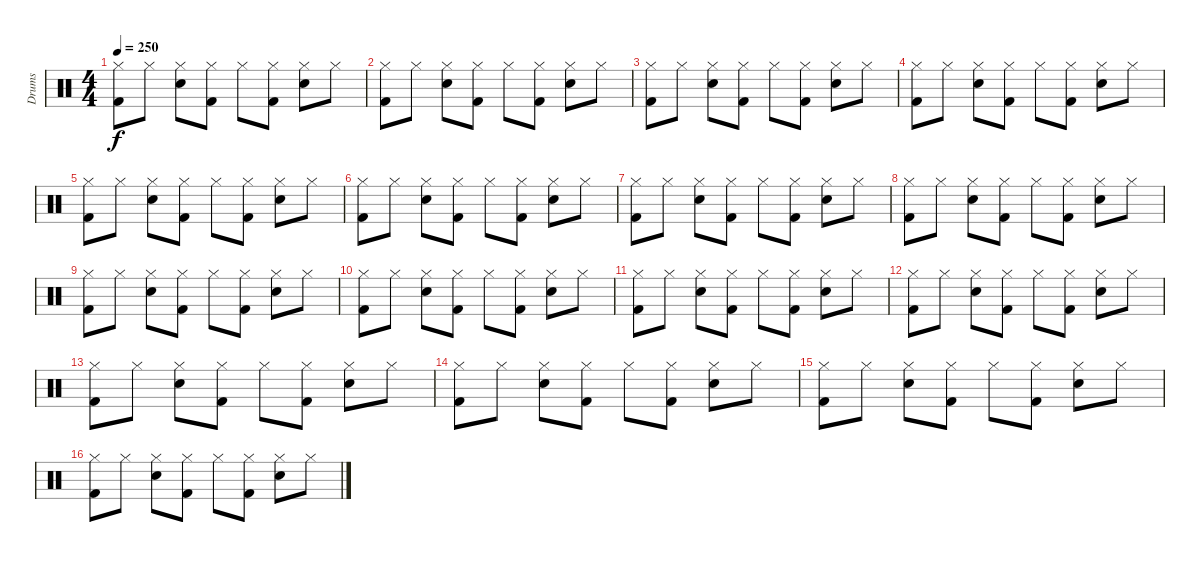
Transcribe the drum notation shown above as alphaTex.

\track ("Drums" "Drums") {instrument percussion}
\staff {score}
\articulation defaults
\ts (4 4)
\tempo 250
\clef neutral
\ks c
("Kick (hit) 2" "Hi-Hat (closed)").8{dy f} "Hi-Hat (closed)".8 ("Snare (hit) 2" "Hi-Hat (closed)").8 ("Kick (hit) 2" "Hi-Hat (closed)").8 "Hi-Hat (closed)".8 ("Kick (hit) 2" "Hi-Hat (closed)").8 ("Snare (hit) 2" "Hi-Hat (closed)").8 "Hi-Hat (closed)".8 |
("Kick (hit) 2" "Hi-Hat (closed)").8 "Hi-Hat (closed)".8 ("Snare (hit) 2" "Hi-Hat (closed)").8 ("Kick (hit) 2" "Hi-Hat (closed)").8 "Hi-Hat (closed)".8 ("Kick (hit) 2" "Hi-Hat (closed)").8 ("Snare (hit) 2" "Hi-Hat (closed)").8 "Hi-Hat (closed)".8 |
("Kick (hit) 2" "Hi-Hat (closed)").8 "Hi-Hat (closed)".8 ("Snare (hit) 2" "Hi-Hat (closed)").8 ("Kick (hit) 2" "Hi-Hat (closed)").8 "Hi-Hat (closed)".8 ("Kick (hit) 2" "Hi-Hat (closed)").8 ("Snare (hit) 2" "Hi-Hat (closed)").8 "Hi-Hat (closed)".8 |
("Kick (hit) 2" "Hi-Hat (closed)").8 "Hi-Hat (closed)".8 ("Snare (hit) 2" "Hi-Hat (closed)").8 ("Kick (hit) 2" "Hi-Hat (closed)").8 "Hi-Hat (closed)".8 ("Kick (hit) 2" "Hi-Hat (closed)").8 ("Snare (hit) 2" "Hi-Hat (closed)").8 "Hi-Hat (closed)".8 |
("Kick (hit) 2" "Hi-Hat (closed)").8 "Hi-Hat (closed)".8 ("Snare (hit) 2" "Hi-Hat (closed)").8 ("Kick (hit) 2" "Hi-Hat (closed)").8 "Hi-Hat (closed)".8 ("Kick (hit) 2" "Hi-Hat (closed)").8 ("Snare (hit) 2" "Hi-Hat (closed)").8 "Hi-Hat (closed)".8 |
("Kick (hit) 2" "Hi-Hat (closed)").8 "Hi-Hat (closed)".8 ("Snare (hit) 2" "Hi-Hat (closed)").8 ("Kick (hit) 2" "Hi-Hat (closed)").8 "Hi-Hat (closed)".8 ("Kick (hit) 2" "Hi-Hat (closed)").8 ("Snare (hit) 2" "Hi-Hat (closed)").8 "Hi-Hat (closed)".8 |
("Kick (hit) 2" "Hi-Hat (closed)").8 "Hi-Hat (closed)".8 ("Snare (hit) 2" "Hi-Hat (closed)").8 ("Kick (hit) 2" "Hi-Hat (closed)").8 "Hi-Hat (closed)".8 ("Kick (hit) 2" "Hi-Hat (closed)").8 ("Snare (hit) 2" "Hi-Hat (closed)").8 "Hi-Hat (closed)".8 |
("Kick (hit) 2" "Hi-Hat (closed)").8 "Hi-Hat (closed)".8 ("Snare (hit) 2" "Hi-Hat (closed)").8 ("Kick (hit) 2" "Hi-Hat (closed)").8 "Hi-Hat (closed)".8 ("Kick (hit) 2" "Hi-Hat (closed)").8 ("Snare (hit) 2" "Hi-Hat (closed)").8 "Hi-Hat (closed)".8 |
("Kick (hit) 2" "Hi-Hat (closed)").8 "Hi-Hat (closed)".8 ("Snare (hit) 2" "Hi-Hat (closed)").8 ("Kick (hit) 2" "Hi-Hat (closed)").8 "Hi-Hat (closed)".8 ("Kick (hit) 2" "Hi-Hat (closed)").8 ("Snare (hit) 2" "Hi-Hat (closed)").8 "Hi-Hat (closed)".8 |
("Kick (hit) 2" "Hi-Hat (closed)").8 "Hi-Hat (closed)".8 ("Snare (hit) 2" "Hi-Hat (closed)").8 ("Kick (hit) 2" "Hi-Hat (closed)").8 "Hi-Hat (closed)".8 ("Kick (hit) 2" "Hi-Hat (closed)").8 ("Snare (hit) 2" "Hi-Hat (closed)").8 "Hi-Hat (closed)".8 |
("Kick (hit) 2" "Hi-Hat (closed)").8 "Hi-Hat (closed)".8 ("Snare (hit) 2" "Hi-Hat (closed)").8 ("Kick (hit) 2" "Hi-Hat (closed)").8 "Hi-Hat (closed)".8 ("Kick (hit) 2" "Hi-Hat (closed)").8 ("Snare (hit) 2" "Hi-Hat (closed)").8 "Hi-Hat (closed)".8 |
("Kick (hit) 2" "Hi-Hat (closed)").8 "Hi-Hat (closed)".8 ("Snare (hit) 2" "Hi-Hat (closed)").8 ("Kick (hit) 2" "Hi-Hat (closed)").8 "Hi-Hat (closed)".8 ("Kick (hit) 2" "Hi-Hat (closed)").8 ("Snare (hit) 2" "Hi-Hat (closed)").8 "Hi-Hat (closed)".8 |
("Kick (hit) 2" "Hi-Hat (closed)").8 "Hi-Hat (closed)".8 ("Snare (hit) 2" "Hi-Hat (closed)").8 ("Kick (hit) 2" "Hi-Hat (closed)").8 "Hi-Hat (closed)".8 ("Kick (hit) 2" "Hi-Hat (closed)").8 ("Snare (hit) 2" "Hi-Hat (closed)").8 "Hi-Hat (closed)".8 |
("Kick (hit) 2" "Hi-Hat (closed)").8 "Hi-Hat (closed)".8 ("Snare (hit) 2" "Hi-Hat (closed)").8 ("Kick (hit) 2" "Hi-Hat (closed)").8 "Hi-Hat (closed)".8 ("Kick (hit) 2" "Hi-Hat (closed)").8 ("Snare (hit) 2" "Hi-Hat (closed)").8 "Hi-Hat (closed)".8 |
("Kick (hit) 2" "Hi-Hat (closed)").8 "Hi-Hat (closed)".8 ("Snare (hit) 2" "Hi-Hat (closed)").8 ("Kick (hit) 2" "Hi-Hat (closed)").8 "Hi-Hat (closed)".8 ("Kick (hit) 2" "Hi-Hat (closed)").8 ("Snare (hit) 2" "Hi-Hat (closed)").8 "Hi-Hat (closed)".8 |
("Kick (hit) 2" "Hi-Hat (closed)").8 "Hi-Hat (closed)".8 ("Snare (hit) 2" "Hi-Hat (closed)").8 ("Kick (hit) 2" "Hi-Hat (closed)").8 "Hi-Hat (closed)".8 ("Kick (hit) 2" "Hi-Hat (closed)").8 ("Snare (hit) 2" "Hi-Hat (closed)").8 "Hi-Hat (closed)".8
